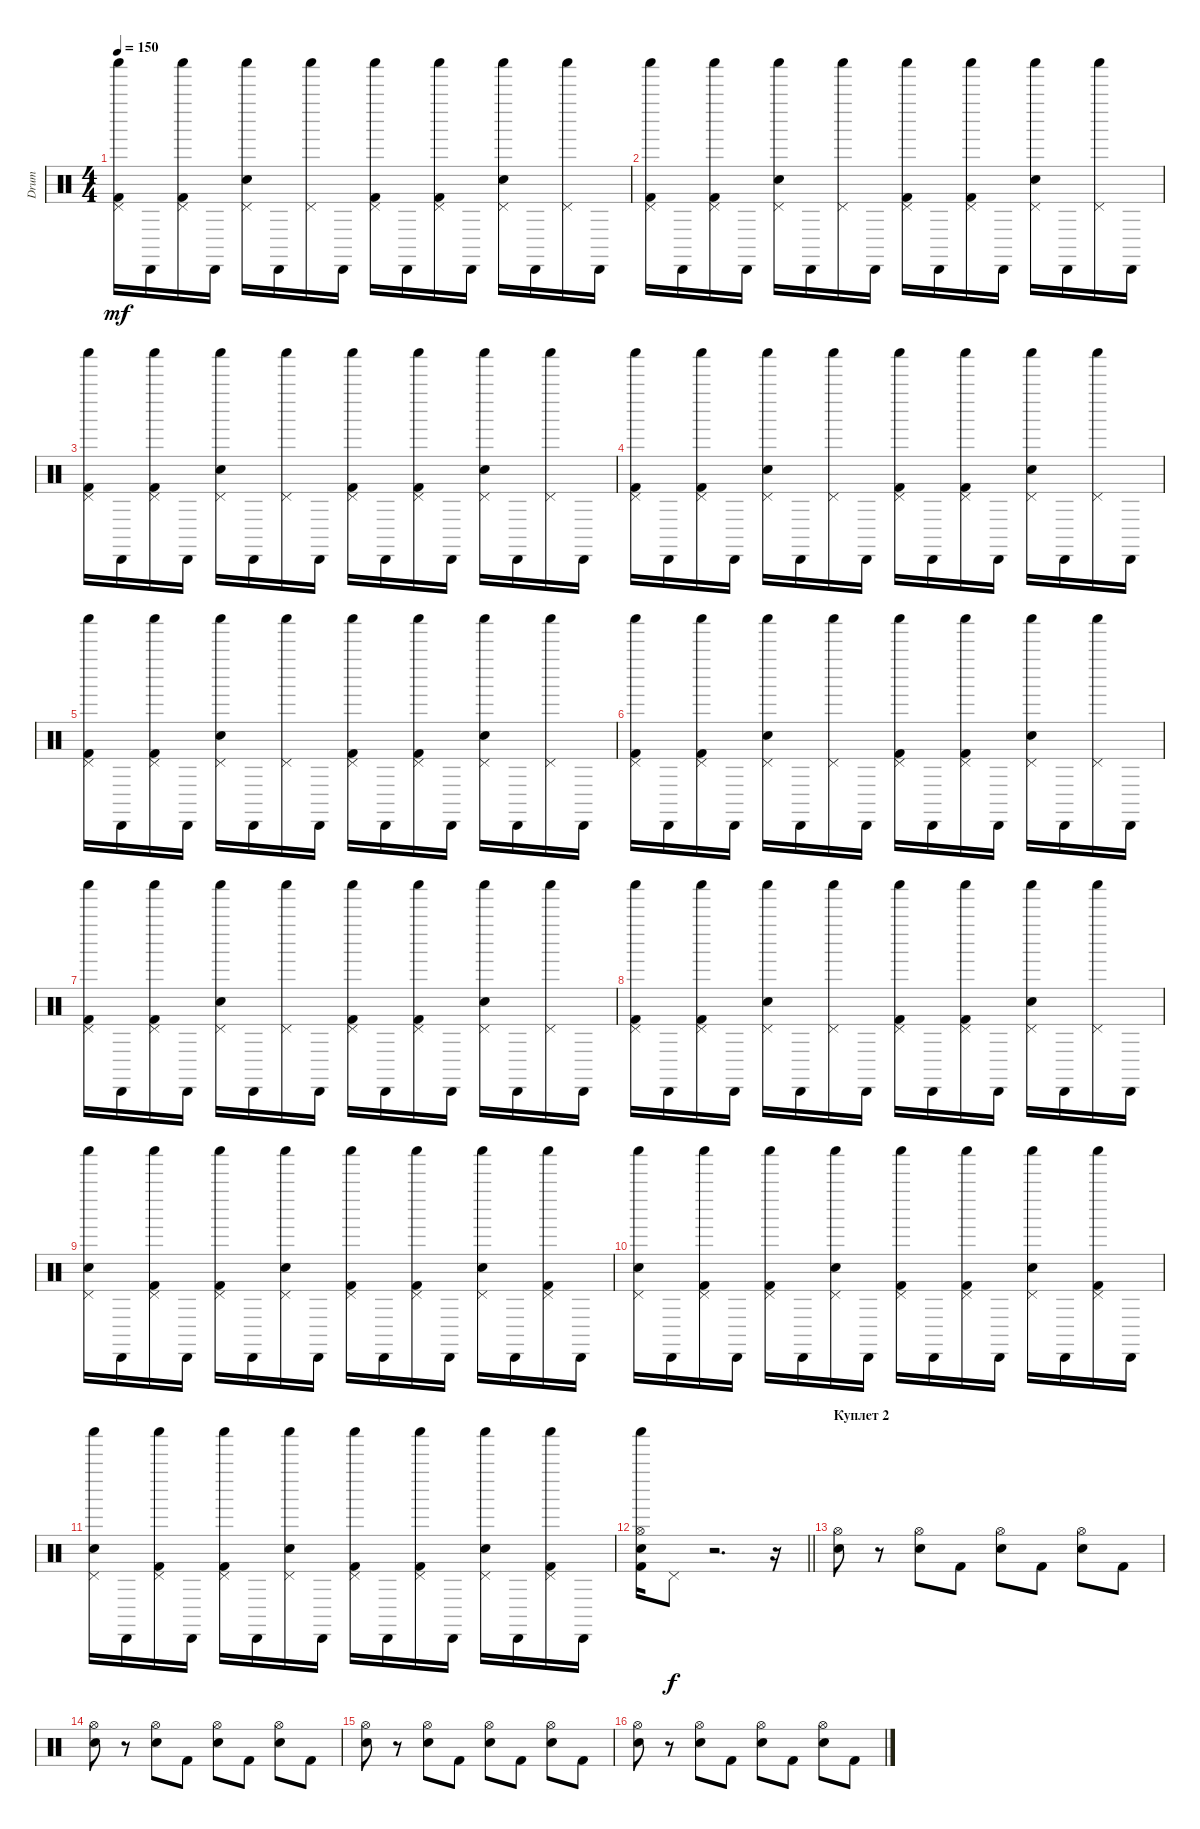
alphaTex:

\track ("Drum" "Drum") {instrument percussion}
\staff {score}
\articulation defaults
\ts (4 4)
\tempo 150
\clef neutral
\ks c
("Shaker (hit)" "Pedal Hi-Hat (hit)" "Kick (hit) 2").16{dy mf} "Cabasa (hit)".16 ("Pedal Hi-Hat (hit)" "Kick (hit) 2" "Shaker (hit)").16 "Cabasa (hit)".16 ("Shaker (hit)" "Pedal Hi-Hat (hit)" "Snare (hit) 2").16 "Cabasa (hit)".16 ("Pedal Hi-Hat (hit)" "Shaker (hit)").16 "Cabasa (hit)".16 ("Shaker (hit)" "Pedal Hi-Hat (hit)" "Kick (hit) 2").16 "Cabasa (hit)".16 ("Pedal Hi-Hat (hit)" "Kick (hit) 2" "Shaker (hit)").16 "Cabasa (hit)".16 ("Shaker (hit)" "Pedal Hi-Hat (hit)" "Snare (hit) 2").16 "Cabasa (hit)".16 ("Pedal Hi-Hat (hit)" "Shaker (hit)").16 "Cabasa (hit)".16 |
("Shaker (hit)" "Pedal Hi-Hat (hit)" "Kick (hit) 2").16 "Cabasa (hit)".16 ("Pedal Hi-Hat (hit)" "Kick (hit) 2" "Shaker (hit)").16 "Cabasa (hit)".16 ("Shaker (hit)" "Pedal Hi-Hat (hit)" "Snare (hit) 2").16 "Cabasa (hit)".16 ("Pedal Hi-Hat (hit)" "Shaker (hit)").16 "Cabasa (hit)".16 ("Shaker (hit)" "Pedal Hi-Hat (hit)" "Kick (hit) 2").16 "Cabasa (hit)".16 ("Pedal Hi-Hat (hit)" "Kick (hit) 2" "Shaker (hit)").16 "Cabasa (hit)".16 ("Shaker (hit)" "Pedal Hi-Hat (hit)" "Snare (hit) 2").16 "Cabasa (hit)".16 ("Pedal Hi-Hat (hit)" "Shaker (hit)").16 "Cabasa (hit)".16 |
("Shaker (hit)" "Pedal Hi-Hat (hit)" "Kick (hit) 2").16 "Cabasa (hit)".16 ("Pedal Hi-Hat (hit)" "Kick (hit) 2" "Shaker (hit)").16 "Cabasa (hit)".16 ("Shaker (hit)" "Pedal Hi-Hat (hit)" "Snare (hit) 2").16 "Cabasa (hit)".16 ("Pedal Hi-Hat (hit)" "Shaker (hit)").16 "Cabasa (hit)".16 ("Shaker (hit)" "Pedal Hi-Hat (hit)" "Kick (hit) 2").16 "Cabasa (hit)".16 ("Pedal Hi-Hat (hit)" "Kick (hit) 2" "Shaker (hit)").16 "Cabasa (hit)".16 ("Shaker (hit)" "Pedal Hi-Hat (hit)" "Snare (hit) 2").16 "Cabasa (hit)".16 ("Pedal Hi-Hat (hit)" "Shaker (hit)").16 "Cabasa (hit)".16 |
("Shaker (hit)" "Pedal Hi-Hat (hit)" "Kick (hit) 2").16 "Cabasa (hit)".16 ("Pedal Hi-Hat (hit)" "Kick (hit) 2" "Shaker (hit)").16 "Cabasa (hit)".16 ("Shaker (hit)" "Pedal Hi-Hat (hit)" "Snare (hit) 2").16 "Cabasa (hit)".16 ("Pedal Hi-Hat (hit)" "Shaker (hit)").16 "Cabasa (hit)".16 ("Shaker (hit)" "Pedal Hi-Hat (hit)" "Kick (hit) 2").16 "Cabasa (hit)".16 ("Pedal Hi-Hat (hit)" "Kick (hit) 2" "Shaker (hit)").16 "Cabasa (hit)".16 ("Shaker (hit)" "Pedal Hi-Hat (hit)" "Snare (hit) 2").16 "Cabasa (hit)".16 ("Pedal Hi-Hat (hit)" "Shaker (hit)").16 "Cabasa (hit)".16 |
("Shaker (hit)" "Pedal Hi-Hat (hit)" "Kick (hit) 2").16 "Cabasa (hit)".16 ("Pedal Hi-Hat (hit)" "Kick (hit) 2" "Shaker (hit)").16 "Cabasa (hit)".16 ("Shaker (hit)" "Pedal Hi-Hat (hit)" "Snare (hit) 2").16 "Cabasa (hit)".16 ("Pedal Hi-Hat (hit)" "Shaker (hit)").16 "Cabasa (hit)".16 ("Shaker (hit)" "Pedal Hi-Hat (hit)" "Kick (hit) 2").16 "Cabasa (hit)".16 ("Pedal Hi-Hat (hit)" "Kick (hit) 2" "Shaker (hit)").16 "Cabasa (hit)".16 ("Shaker (hit)" "Pedal Hi-Hat (hit)" "Snare (hit) 2").16 "Cabasa (hit)".16 ("Pedal Hi-Hat (hit)" "Shaker (hit)").16 "Cabasa (hit)".16 |
("Shaker (hit)" "Pedal Hi-Hat (hit)" "Kick (hit) 2").16 "Cabasa (hit)".16 ("Pedal Hi-Hat (hit)" "Kick (hit) 2" "Shaker (hit)").16 "Cabasa (hit)".16 ("Shaker (hit)" "Pedal Hi-Hat (hit)" "Snare (hit) 2").16 "Cabasa (hit)".16 ("Pedal Hi-Hat (hit)" "Shaker (hit)").16 "Cabasa (hit)".16 ("Shaker (hit)" "Pedal Hi-Hat (hit)" "Kick (hit) 2").16 "Cabasa (hit)".16 ("Pedal Hi-Hat (hit)" "Kick (hit) 2" "Shaker (hit)").16 "Cabasa (hit)".16 ("Shaker (hit)" "Pedal Hi-Hat (hit)" "Snare (hit) 2").16 "Cabasa (hit)".16 ("Pedal Hi-Hat (hit)" "Shaker (hit)").16 "Cabasa (hit)".16 |
("Shaker (hit)" "Pedal Hi-Hat (hit)" "Kick (hit) 2").16 "Cabasa (hit)".16 ("Pedal Hi-Hat (hit)" "Kick (hit) 2" "Shaker (hit)").16 "Cabasa (hit)".16 ("Shaker (hit)" "Pedal Hi-Hat (hit)" "Snare (hit) 2").16 "Cabasa (hit)".16 ("Pedal Hi-Hat (hit)" "Shaker (hit)").16 "Cabasa (hit)".16 ("Shaker (hit)" "Pedal Hi-Hat (hit)" "Kick (hit) 2").16 "Cabasa (hit)".16 ("Pedal Hi-Hat (hit)" "Kick (hit) 2" "Shaker (hit)").16 "Cabasa (hit)".16 ("Shaker (hit)" "Pedal Hi-Hat (hit)" "Snare (hit) 2").16 "Cabasa (hit)".16 ("Pedal Hi-Hat (hit)" "Shaker (hit)").16 "Cabasa (hit)".16 |
("Shaker (hit)" "Pedal Hi-Hat (hit)" "Kick (hit) 2").16 "Cabasa (hit)".16 ("Pedal Hi-Hat (hit)" "Kick (hit) 2" "Shaker (hit)").16 "Cabasa (hit)".16 ("Shaker (hit)" "Pedal Hi-Hat (hit)" "Snare (hit) 2").16 "Cabasa (hit)".16 ("Pedal Hi-Hat (hit)" "Shaker (hit)").16 "Cabasa (hit)".16 ("Shaker (hit)" "Pedal Hi-Hat (hit)" "Kick (hit) 2").16 "Cabasa (hit)".16 ("Pedal Hi-Hat (hit)" "Kick (hit) 2" "Shaker (hit)").16 "Cabasa (hit)".16 ("Shaker (hit)" "Pedal Hi-Hat (hit)" "Snare (hit) 2").16 "Cabasa (hit)".16 ("Pedal Hi-Hat (hit)" "Shaker (hit)").16 "Cabasa (hit)".16 |
("Snare (hit) 2" "Shaker (hit)" "Pedal Hi-Hat (hit)").16 "Cabasa (hit)".16 ("Pedal Hi-Hat (hit)" "Kick (hit) 2" "Shaker (hit)").16 "Cabasa (hit)".16 ("Kick (hit) 2" "Shaker (hit)" "Pedal Hi-Hat (hit)").16 "Cabasa (hit)".16 ("Snare (hit) 2" "Pedal Hi-Hat (hit)" "Shaker (hit)").16 "Cabasa (hit)".16 ("Shaker (hit)" "Pedal Hi-Hat (hit)" "Kick (hit) 2").16 "Cabasa (hit)".16 ("Pedal Hi-Hat (hit)" "Kick (hit) 2" "Shaker (hit)").16 "Cabasa (hit)".16 ("Shaker (hit)" "Pedal Hi-Hat (hit)" "Snare (hit) 2").16 "Cabasa (hit)".16 ("Kick (hit) 2" "Pedal Hi-Hat (hit)" "Shaker (hit)").16 "Cabasa (hit)".16 |
("Snare (hit) 2" "Shaker (hit)" "Pedal Hi-Hat (hit)").16 "Cabasa (hit)".16 ("Pedal Hi-Hat (hit)" "Kick (hit) 2" "Shaker (hit)").16 "Cabasa (hit)".16 ("Kick (hit) 2" "Shaker (hit)" "Pedal Hi-Hat (hit)").16 "Cabasa (hit)".16 ("Snare (hit) 2" "Pedal Hi-Hat (hit)" "Shaker (hit)").16 "Cabasa (hit)".16 ("Shaker (hit)" "Pedal Hi-Hat (hit)" "Kick (hit) 2").16 "Cabasa (hit)".16 ("Pedal Hi-Hat (hit)" "Kick (hit) 2" "Shaker (hit)").16 "Cabasa (hit)".16 ("Shaker (hit)" "Pedal Hi-Hat (hit)" "Snare (hit) 2").16 "Cabasa (hit)".16 ("Kick (hit) 2" "Pedal Hi-Hat (hit)" "Shaker (hit)").16 "Cabasa (hit)".16 |
("Snare (hit) 2" "Shaker (hit)" "Pedal Hi-Hat (hit)").16 "Cabasa (hit)".16 ("Pedal Hi-Hat (hit)" "Kick (hit) 2" "Shaker (hit)").16 "Cabasa (hit)".16 ("Kick (hit) 2" "Shaker (hit)" "Pedal Hi-Hat (hit)").16 "Cabasa (hit)".16 ("Snare (hit) 2" "Pedal Hi-Hat (hit)" "Shaker (hit)").16 "Cabasa (hit)".16 ("Shaker (hit)" "Pedal Hi-Hat (hit)" "Kick (hit) 2").16 "Cabasa (hit)".16 ("Pedal Hi-Hat (hit)" "Kick (hit) 2" "Shaker (hit)").16 "Cabasa (hit)".16 ("Shaker (hit)" "Pedal Hi-Hat (hit)" "Snare (hit) 2").16 "Cabasa (hit)".16 ("Kick (hit) 2" "Pedal Hi-Hat (hit)" "Shaker (hit)").16 "Cabasa (hit)".16 |
\barLineRight lightlight
("Hi-Hat (open)" "Kick (hit) 2" "Snare (hit) 2" "Shaker (hit)").16 "Pedal Hi-Hat (hit)".8{dy f} r.2{d} r.16 |
\section ("" "Куплет 2")
("Snare (hit) 2" "Hi-Hat (open)").8 r.8 ("Snare (hit) 2" "Hi-Hat (open)").8 "Kick (hit) 2".8 ("Snare (hit) 2" "Hi-Hat (open)").8 "Kick (hit) 2".8 ("Snare (hit) 2" "Hi-Hat (open)").8 "Kick (hit) 2".8 |
("Snare (hit) 2" "Hi-Hat (open)").8 r.8 ("Snare (hit) 2" "Hi-Hat (open)").8 "Kick (hit) 2".8 ("Snare (hit) 2" "Hi-Hat (open)").8 "Kick (hit) 2".8 ("Snare (hit) 2" "Hi-Hat (open)").8 "Kick (hit) 2".8 |
("Snare (hit) 2" "Hi-Hat (open)").8 r.8 ("Snare (hit) 2" "Hi-Hat (open)").8 "Kick (hit) 2".8 ("Snare (hit) 2" "Hi-Hat (open)").8 "Kick (hit) 2".8 ("Snare (hit) 2" "Hi-Hat (open)").8 "Kick (hit) 2".8 |
("Snare (hit) 2" "Hi-Hat (open)").8 r.8 ("Snare (hit) 2" "Hi-Hat (open)").8 "Kick (hit) 2".8 ("Snare (hit) 2" "Hi-Hat (open)").8 "Kick (hit) 2".8 ("Snare (hit) 2" "Hi-Hat (open)").8 "Kick (hit) 2".8
